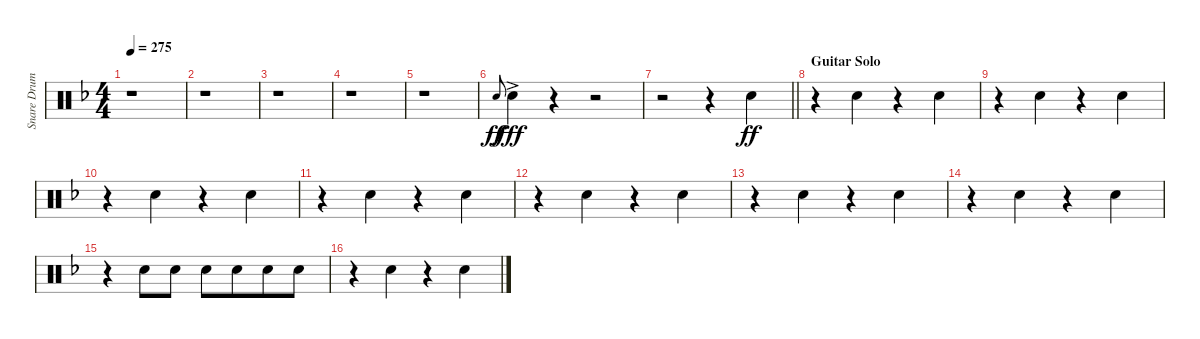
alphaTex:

\track ("Snare Drum" "Snare Drum") {instrument percussion}
\staff {score}
\articulation defaults
\ts (4 4)
\tempo 275
\clef neutral
\ks dminor
r.1{dy ff} |
r.1 |
r.1 |
r.1 |
r.1 |
"Electric Snare (hit)".8{gr onbeat} "Electric Snare (hit)"{ac}.4{dy fff volume 16} r.4 r.2 |
\barLineRight lightlight
r.2 r.4 "Electric Snare (hit)".4{dy ff volume 13} |
\section ("" "Guitar Solo")
r.4 "Electric Snare (hit)".4 r.4 "Electric Snare (hit)".4 |
r.4 "Electric Snare (hit)".4 r.4 "Electric Snare (hit)".4 |
r.4 "Electric Snare (hit)".4 r.4 "Electric Snare (hit)".4 |
r.4 "Electric Snare (hit)".4 r.4 "Electric Snare (hit)".4 |
r.4 "Electric Snare (hit)".4 r.4 "Electric Snare (hit)".4 |
r.4 "Electric Snare (hit)".4 r.4 "Electric Snare (hit)".4 |
r.4 "Electric Snare (hit)".4 r.4 "Electric Snare (hit)".4 |
r.4 "Electric Snare (hit)".8 "Electric Snare (hit)".8 "Electric Snare (hit)".8 "Electric Snare (hit)".8{beam merge} "Electric Snare (hit)".8 "Electric Snare (hit)".8 |
r.4 "Electric Snare (hit)".4 r.4 "Electric Snare (hit)".4
